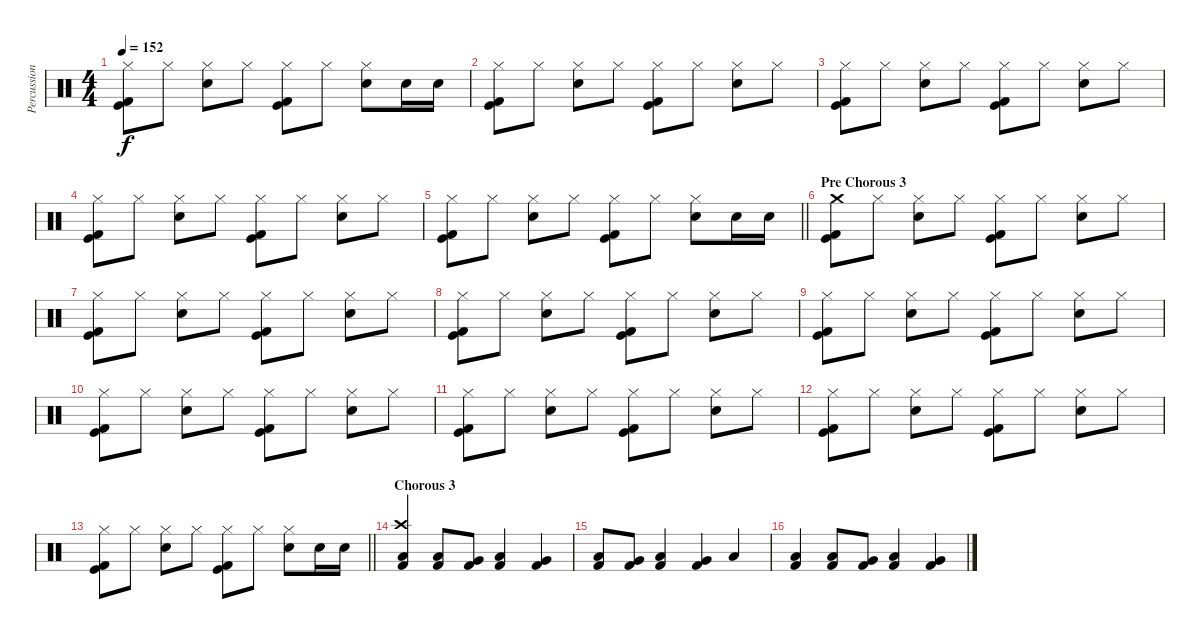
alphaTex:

\track ("Percussion" "Percussion") {instrument percussion}
\staff {score}
\articulation defaults
\ts (4 4)
\tempo 152
\clef neutral
\ks c
("Hi-Hat (closed)" "Kick (hit)" "Kick (hit) 2").8{dy f} "Hi-Hat (closed)".8 ("Hi-Hat (closed)" "Electric Snare (hit)").8 "Hi-Hat (closed)".8 ("Hi-Hat (closed)" "Kick (hit)" "Kick (hit) 2").8 "Hi-Hat (closed)".8 ("Hi-Hat (closed)" "Electric Snare (hit)").8 "Electric Snare (hit)".16 "Electric Snare (hit)".16 |
("Hi-Hat (closed)" "Kick (hit)" "Kick (hit) 2").8 "Hi-Hat (closed)".8 ("Hi-Hat (closed)" "Electric Snare (hit)").8 "Hi-Hat (closed)".8 ("Hi-Hat (closed)" "Kick (hit)" "Kick (hit) 2").8 "Hi-Hat (closed)".8 ("Hi-Hat (closed)" "Electric Snare (hit)").8 "Hi-Hat (closed)".8 |
("Hi-Hat (closed)" "Kick (hit)" "Kick (hit) 2").8 "Hi-Hat (closed)".8 ("Hi-Hat (closed)" "Electric Snare (hit)").8 "Hi-Hat (closed)".8 ("Hi-Hat (closed)" "Kick (hit)" "Kick (hit) 2").8 "Hi-Hat (closed)".8 ("Hi-Hat (closed)" "Electric Snare (hit)").8 "Hi-Hat (closed)".8 |
("Hi-Hat (closed)" "Kick (hit)" "Kick (hit) 2").8 "Hi-Hat (closed)".8 ("Hi-Hat (closed)" "Electric Snare (hit)").8 "Hi-Hat (closed)".8 ("Hi-Hat (closed)" "Kick (hit)" "Kick (hit) 2").8 "Hi-Hat (closed)".8 ("Hi-Hat (closed)" "Electric Snare (hit)").8 "Hi-Hat (closed)".8 |
\barLineRight lightlight
("Hi-Hat (closed)" "Kick (hit)" "Kick (hit) 2").8 "Hi-Hat (closed)".8 ("Hi-Hat (closed)" "Electric Snare (hit)").8 "Hi-Hat (closed)".8 ("Hi-Hat (closed)" "Kick (hit)" "Kick (hit) 2").8 "Hi-Hat (closed)".8 ("Hi-Hat (closed)" "Electric Snare (hit)").8 "Electric Snare (hit)".16 "Electric Snare (hit)".16 |
\section ("" "Pre Chorous 3")
("Crash medium (hit)" "Kick (hit)" "Kick (hit) 2").8 "Hi-Hat (closed)".8 ("Hi-Hat (closed)" "Electric Snare (hit)").8 "Hi-Hat (closed)".8 ("Hi-Hat (closed)" "Kick (hit)" "Kick (hit) 2").8 "Hi-Hat (closed)".8 ("Hi-Hat (closed)" "Electric Snare (hit)").8 "Hi-Hat (closed)".8 |
("Hi-Hat (closed)" "Kick (hit)" "Kick (hit) 2").8 "Hi-Hat (closed)".8 ("Hi-Hat (closed)" "Electric Snare (hit)").8 "Hi-Hat (closed)".8 ("Hi-Hat (closed)" "Kick (hit)" "Kick (hit) 2").8 "Hi-Hat (closed)".8 ("Hi-Hat (closed)" "Electric Snare (hit)").8 "Hi-Hat (closed)".8 |
("Hi-Hat (closed)" "Kick (hit)" "Kick (hit) 2").8 "Hi-Hat (closed)".8 ("Hi-Hat (closed)" "Electric Snare (hit)").8 "Hi-Hat (closed)".8 ("Hi-Hat (closed)" "Kick (hit)" "Kick (hit) 2").8 "Hi-Hat (closed)".8 ("Hi-Hat (closed)" "Electric Snare (hit)").8 "Hi-Hat (closed)".8 |
("Hi-Hat (closed)" "Kick (hit)" "Kick (hit) 2").8 "Hi-Hat (closed)".8 ("Hi-Hat (closed)" "Electric Snare (hit)").8 "Hi-Hat (closed)".8 ("Hi-Hat (closed)" "Kick (hit)" "Kick (hit) 2").8 "Hi-Hat (closed)".8 ("Hi-Hat (closed)" "Electric Snare (hit)").8 "Hi-Hat (closed)".8 |
("Hi-Hat (closed)" "Kick (hit)" "Kick (hit) 2").8 "Hi-Hat (closed)".8 ("Hi-Hat (closed)" "Electric Snare (hit)").8 "Hi-Hat (closed)".8 ("Hi-Hat (closed)" "Kick (hit)" "Kick (hit) 2").8 "Hi-Hat (closed)".8 ("Hi-Hat (closed)" "Electric Snare (hit)").8 "Hi-Hat (closed)".8 |
("Hi-Hat (closed)" "Kick (hit)" "Kick (hit) 2").8 "Hi-Hat (closed)".8 ("Hi-Hat (closed)" "Electric Snare (hit)").8 "Hi-Hat (closed)".8 ("Hi-Hat (closed)" "Kick (hit)" "Kick (hit) 2").8 "Hi-Hat (closed)".8 ("Hi-Hat (closed)" "Electric Snare (hit)").8 "Hi-Hat (closed)".8 |
("Hi-Hat (closed)" "Kick (hit)" "Kick (hit) 2").8 "Hi-Hat (closed)".8 ("Hi-Hat (closed)" "Electric Snare (hit)").8 "Hi-Hat (closed)".8 ("Hi-Hat (closed)" "Kick (hit)" "Kick (hit) 2").8 "Hi-Hat (closed)".8 ("Hi-Hat (closed)" "Electric Snare (hit)").8 "Hi-Hat (closed)".8 |
\barLineRight lightlight
("Hi-Hat (closed)" "Kick (hit)" "Kick (hit) 2").8 "Hi-Hat (closed)".8 ("Hi-Hat (closed)" "Electric Snare (hit)").8 "Hi-Hat (closed)".8 ("Hi-Hat (closed)" "Kick (hit)" "Kick (hit) 2").8 "Hi-Hat (closed)".8 ("Hi-Hat (closed)" "Electric Snare (hit)").8 "Electric Snare (hit)".16 "Electric Snare (hit)".16 |
\section ("" "Chorous 3")
("Crash high (hit)" "Kick (hit) 2" "Low Tom (hit)").4 ("Kick (hit) 2" "Low Tom (hit)").8 ("Kick (hit) 2" "Very Low Tom (hit)").8 ("Kick (hit) 2" "Low Floor Tom (hit)").4 ("Kick (hit) 2" "Very Low Tom (hit)").4 |
("Kick (hit) 2" "Low Tom (hit)").8 ("Kick (hit) 2" "Very Low Tom (hit)").8 ("Kick (hit) 2" "Low Floor Tom (hit)").4 ("Kick (hit) 2" "Very Low Tom (hit)").4 "Low Floor Tom (hit)".4 |
("Kick (hit) 2" "Low Tom (hit)").4 ("Kick (hit) 2" "Low Tom (hit)").8 ("Kick (hit) 2" "Very Low Tom (hit)").8 ("Kick (hit) 2" "Low Floor Tom (hit)").4 ("Kick (hit) 2" "Very Low Tom (hit)").4
